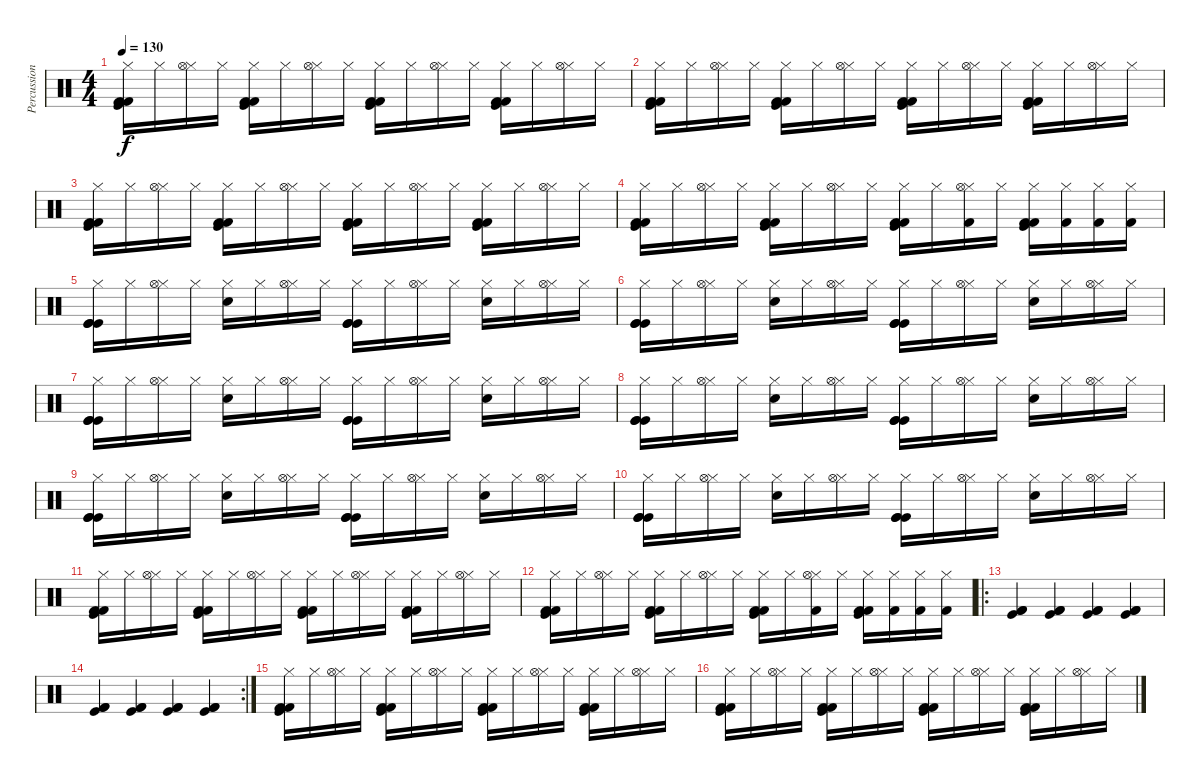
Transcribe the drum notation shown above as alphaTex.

\track ("Percussion" "Percussion") {instrument percussion}
\staff {score}
\articulation defaults
\ts (4 4)
\tempo 130
\clef neutral
\ks c
("Hi-Hat (closed)" "Kick (hit)" "Kick (hit) 2" "Kick (hit) 2").16{dy f} "Hi-Hat (closed)".16 ("Hi-Hat (closed)" "Hi-Hat (open)").16 "Hi-Hat (closed)".16 ("Hi-Hat (closed)" "Kick (hit) 2" "Kick (hit) 2" "Kick (hit)").16 "Hi-Hat (closed)".16 ("Hi-Hat (closed)" "Hi-Hat (open)").16 "Hi-Hat (closed)".16 ("Hi-Hat (closed)" "Kick (hit)" "Kick (hit) 2" "Kick (hit) 2").16 "Hi-Hat (closed)".16 ("Hi-Hat (closed)" "Hi-Hat (open)").16 "Hi-Hat (closed)".16 ("Hi-Hat (closed)" "Kick (hit) 2" "Kick (hit) 2" "Kick (hit)").16 "Hi-Hat (closed)".16 ("Hi-Hat (closed)" "Hi-Hat (open)").16 "Hi-Hat (closed)".16 |
("Hi-Hat (closed)" "Kick (hit)" "Kick (hit) 2" "Kick (hit) 2").16 "Hi-Hat (closed)".16 ("Hi-Hat (closed)" "Hi-Hat (open)").16 "Hi-Hat (closed)".16 ("Hi-Hat (closed)" "Kick (hit) 2" "Kick (hit) 2" "Kick (hit)").16 "Hi-Hat (closed)".16 ("Hi-Hat (closed)" "Hi-Hat (open)").16 "Hi-Hat (closed)".16 ("Hi-Hat (closed)" "Kick (hit)" "Kick (hit) 2" "Kick (hit) 2").16 "Hi-Hat (closed)".16 ("Hi-Hat (closed)" "Hi-Hat (open)").16 "Hi-Hat (closed)".16 ("Hi-Hat (closed)" "Kick (hit) 2" "Kick (hit) 2" "Kick (hit)").16 "Hi-Hat (closed)".16 ("Hi-Hat (closed)" "Hi-Hat (open)").16 "Hi-Hat (closed)".16 |
("Hi-Hat (closed)" "Kick (hit)" "Kick (hit) 2" "Kick (hit) 2").16 "Hi-Hat (closed)".16 ("Hi-Hat (closed)" "Hi-Hat (open)").16 "Hi-Hat (closed)".16 ("Hi-Hat (closed)" "Kick (hit) 2" "Kick (hit) 2" "Kick (hit)").16 "Hi-Hat (closed)".16 ("Hi-Hat (closed)" "Hi-Hat (open)").16 "Hi-Hat (closed)".16 ("Hi-Hat (closed)" "Kick (hit)" "Kick (hit) 2" "Kick (hit) 2").16 "Hi-Hat (closed)".16 ("Hi-Hat (closed)" "Hi-Hat (open)").16 "Hi-Hat (closed)".16 ("Hi-Hat (closed)" "Kick (hit) 2" "Kick (hit) 2" "Kick (hit)").16 "Hi-Hat (closed)".16 ("Hi-Hat (closed)" "Hi-Hat (open)").16 "Hi-Hat (closed)".16 |
("Hi-Hat (closed)" "Kick (hit)" "Kick (hit) 2" "Kick (hit) 2").16 "Hi-Hat (closed)".16 ("Hi-Hat (closed)" "Hi-Hat (open)").16 "Hi-Hat (closed)".16 ("Hi-Hat (closed)" "Kick (hit) 2" "Kick (hit) 2" "Kick (hit)").16 "Hi-Hat (closed)".16 ("Hi-Hat (closed)" "Hi-Hat (open)").16 "Hi-Hat (closed)".16 ("Hi-Hat (closed)" "Kick (hit)" "Kick (hit) 2" "Kick (hit) 2").16 "Hi-Hat (closed)".16 ("Hi-Hat (closed)" "Kick (hit) 2" "Hi-Hat (open)").16 "Hi-Hat (closed)".16 ("Hi-Hat (closed)" "Kick (hit) 2" "Kick (hit) 2" "Kick (hit)").16 ("Hi-Hat (closed)" "Kick (hit) 2").16 ("Hi-Hat (closed)" "Kick (hit) 2").16 ("Hi-Hat (closed)" "Kick (hit) 2").16 |
("Hi-Hat (closed)" "Kick (hit)" "Kick (hit)" "Kick (hit)").16 "Hi-Hat (closed)".16 ("Hi-Hat (closed)" "Hi-Hat (open)").16 "Hi-Hat (closed)".16 ("Hi-Hat (closed)" "Electric Snare (hit)").16 "Hi-Hat (closed)".16 ("Hi-Hat (closed)" "Hi-Hat (open)").16 "Hi-Hat (closed)".16 ("Hi-Hat (closed)" "Kick (hit)" "Kick (hit)" "Kick (hit)").16 "Hi-Hat (closed)".16 ("Hi-Hat (closed)" "Hi-Hat (open)").16 "Hi-Hat (closed)".16 ("Hi-Hat (closed)" "Electric Snare (hit)").16 "Hi-Hat (closed)".16 ("Hi-Hat (closed)" "Hi-Hat (open)").16 "Hi-Hat (closed)".16 |
("Hi-Hat (closed)" "Kick (hit)" "Kick (hit)" "Kick (hit)").16 "Hi-Hat (closed)".16 ("Hi-Hat (closed)" "Hi-Hat (open)").16 "Hi-Hat (closed)".16 ("Hi-Hat (closed)" "Electric Snare (hit)").16 "Hi-Hat (closed)".16 ("Hi-Hat (closed)" "Hi-Hat (open)").16 "Hi-Hat (closed)".16 ("Hi-Hat (closed)" "Kick (hit)" "Kick (hit)" "Kick (hit)").16 "Hi-Hat (closed)".16 ("Hi-Hat (closed)" "Hi-Hat (open)").16 "Hi-Hat (closed)".16 ("Hi-Hat (closed)" "Electric Snare (hit)").16 "Hi-Hat (closed)".16 ("Hi-Hat (closed)" "Hi-Hat (open)").16 "Hi-Hat (closed)".16 |
("Hi-Hat (closed)" "Kick (hit)" "Kick (hit)" "Kick (hit)").16 "Hi-Hat (closed)".16 ("Hi-Hat (closed)" "Hi-Hat (open)").16 "Hi-Hat (closed)".16 ("Hi-Hat (closed)" "Electric Snare (hit)").16 "Hi-Hat (closed)".16 ("Hi-Hat (closed)" "Hi-Hat (open)").16 "Hi-Hat (closed)".16 ("Hi-Hat (closed)" "Kick (hit)" "Kick (hit)" "Kick (hit)").16 "Hi-Hat (closed)".16 ("Hi-Hat (closed)" "Hi-Hat (open)").16 "Hi-Hat (closed)".16 ("Hi-Hat (closed)" "Electric Snare (hit)").16 "Hi-Hat (closed)".16 ("Hi-Hat (closed)" "Hi-Hat (open)").16 "Hi-Hat (closed)".16 |
("Hi-Hat (closed)" "Kick (hit)" "Kick (hit)" "Kick (hit)").16 "Hi-Hat (closed)".16 ("Hi-Hat (closed)" "Hi-Hat (open)").16 "Hi-Hat (closed)".16 ("Hi-Hat (closed)" "Electric Snare (hit)").16 "Hi-Hat (closed)".16 ("Hi-Hat (closed)" "Hi-Hat (open)").16 "Hi-Hat (closed)".16 ("Hi-Hat (closed)" "Kick (hit)" "Kick (hit)" "Kick (hit)").16 "Hi-Hat (closed)".16 ("Hi-Hat (closed)" "Hi-Hat (open)").16 "Hi-Hat (closed)".16 ("Hi-Hat (closed)" "Electric Snare (hit)").16 "Hi-Hat (closed)".16 ("Hi-Hat (closed)" "Hi-Hat (open)").16 "Hi-Hat (closed)".16 |
("Hi-Hat (closed)" "Kick (hit)" "Kick (hit)" "Kick (hit)").16 "Hi-Hat (closed)".16 ("Hi-Hat (closed)" "Hi-Hat (open)").16 "Hi-Hat (closed)".16 ("Hi-Hat (closed)" "Electric Snare (hit)").16 "Hi-Hat (closed)".16 ("Hi-Hat (closed)" "Hi-Hat (open)").16 "Hi-Hat (closed)".16 ("Hi-Hat (closed)" "Kick (hit)" "Kick (hit)" "Kick (hit)").16 "Hi-Hat (closed)".16 ("Hi-Hat (closed)" "Hi-Hat (open)").16 "Hi-Hat (closed)".16 ("Hi-Hat (closed)" "Electric Snare (hit)").16 "Hi-Hat (closed)".16 ("Hi-Hat (closed)" "Hi-Hat (open)").16 "Hi-Hat (closed)".16 |
("Hi-Hat (closed)" "Kick (hit)" "Kick (hit)" "Kick (hit)").16 "Hi-Hat (closed)".16 ("Hi-Hat (closed)" "Hi-Hat (open)").16 "Hi-Hat (closed)".16 ("Hi-Hat (closed)" "Electric Snare (hit)").16 "Hi-Hat (closed)".16 ("Hi-Hat (closed)" "Hi-Hat (open)").16 "Hi-Hat (closed)".16 ("Hi-Hat (closed)" "Kick (hit)" "Kick (hit)" "Kick (hit)").16 "Hi-Hat (closed)".16 ("Hi-Hat (closed)" "Hi-Hat (open)").16 "Hi-Hat (closed)".16 ("Hi-Hat (closed)" "Electric Snare (hit)").16 "Hi-Hat (closed)".16 ("Hi-Hat (closed)" "Hi-Hat (open)").16 "Hi-Hat (closed)".16 |
("Hi-Hat (closed)" "Kick (hit)" "Kick (hit) 2" "Kick (hit) 2").16 "Hi-Hat (closed)".16 ("Hi-Hat (closed)" "Hi-Hat (open)").16 "Hi-Hat (closed)".16 ("Hi-Hat (closed)" "Kick (hit) 2" "Kick (hit) 2" "Kick (hit)").16 "Hi-Hat (closed)".16 ("Hi-Hat (closed)" "Hi-Hat (open)").16 "Hi-Hat (closed)".16 ("Hi-Hat (closed)" "Kick (hit)" "Kick (hit) 2" "Kick (hit) 2").16 "Hi-Hat (closed)".16 ("Hi-Hat (closed)" "Hi-Hat (open)").16 "Hi-Hat (closed)".16 ("Hi-Hat (closed)" "Kick (hit) 2" "Kick (hit) 2" "Kick (hit)").16 "Hi-Hat (closed)".16 ("Hi-Hat (closed)" "Hi-Hat (open)").16 "Hi-Hat (closed)".16 |
("Hi-Hat (closed)" "Kick (hit)" "Kick (hit) 2" "Kick (hit) 2").16 "Hi-Hat (closed)".16 ("Hi-Hat (closed)" "Hi-Hat (open)").16 "Hi-Hat (closed)".16 ("Hi-Hat (closed)" "Kick (hit) 2" "Kick (hit) 2" "Kick (hit)").16 "Hi-Hat (closed)".16 ("Hi-Hat (closed)" "Hi-Hat (open)").16 "Hi-Hat (closed)".16 ("Hi-Hat (closed)" "Kick (hit)" "Kick (hit) 2" "Kick (hit) 2").16 "Hi-Hat (closed)".16 ("Hi-Hat (closed)" "Kick (hit) 2" "Hi-Hat (open)").16 "Hi-Hat (closed)".16 ("Hi-Hat (closed)" "Kick (hit) 2" "Kick (hit) 2" "Kick (hit)").16 ("Hi-Hat (closed)" "Kick (hit) 2").16 ("Hi-Hat (closed)" "Kick (hit) 2").16 ("Hi-Hat (closed)" "Kick (hit) 2").16 |
\ro
("Kick (hit) 2" "Kick (hit) 2" "Kick (hit)").4 ("Kick (hit) 2" "Kick (hit) 2" "Kick (hit)").4 ("Kick (hit) 2" "Kick (hit) 2" "Kick (hit)").4 ("Kick (hit) 2" "Kick (hit) 2" "Kick (hit)").4 |
\rc 2
("Kick (hit) 2" "Kick (hit) 2" "Kick (hit)").4 ("Kick (hit) 2" "Kick (hit) 2" "Kick (hit)").4 ("Kick (hit) 2" "Kick (hit) 2" "Kick (hit)").4 ("Kick (hit) 2" "Kick (hit) 2" "Kick (hit)").4 |
("Hi-Hat (closed)" "Kick (hit)" "Kick (hit) 2" "Kick (hit) 2").16 "Hi-Hat (closed)".16 ("Hi-Hat (closed)" "Hi-Hat (open)").16 "Hi-Hat (closed)".16 ("Hi-Hat (closed)" "Kick (hit) 2" "Kick (hit) 2" "Kick (hit)").16 "Hi-Hat (closed)".16 ("Hi-Hat (closed)" "Hi-Hat (open)").16 "Hi-Hat (closed)".16 ("Hi-Hat (closed)" "Kick (hit)" "Kick (hit) 2" "Kick (hit) 2").16 "Hi-Hat (closed)".16 ("Hi-Hat (closed)" "Hi-Hat (open)").16 "Hi-Hat (closed)".16 ("Hi-Hat (closed)" "Kick (hit) 2" "Kick (hit) 2" "Kick (hit)").16 "Hi-Hat (closed)".16 ("Hi-Hat (closed)" "Hi-Hat (open)").16 "Hi-Hat (closed)".16 |
("Hi-Hat (closed)" "Kick (hit)" "Kick (hit) 2" "Kick (hit) 2").16 "Hi-Hat (closed)".16 ("Hi-Hat (closed)" "Hi-Hat (open)").16 "Hi-Hat (closed)".16 ("Hi-Hat (closed)" "Kick (hit) 2" "Kick (hit) 2" "Kick (hit)").16 "Hi-Hat (closed)".16 ("Hi-Hat (closed)" "Hi-Hat (open)").16 "Hi-Hat (closed)".16 ("Hi-Hat (closed)" "Kick (hit)" "Kick (hit) 2" "Kick (hit) 2").16 "Hi-Hat (closed)".16 ("Hi-Hat (closed)" "Hi-Hat (open)").16 "Hi-Hat (closed)".16 ("Hi-Hat (closed)" "Kick (hit) 2" "Kick (hit) 2" "Kick (hit)").16 "Hi-Hat (closed)".16 ("Hi-Hat (closed)" "Hi-Hat (open)").16 "Hi-Hat (closed)".16
